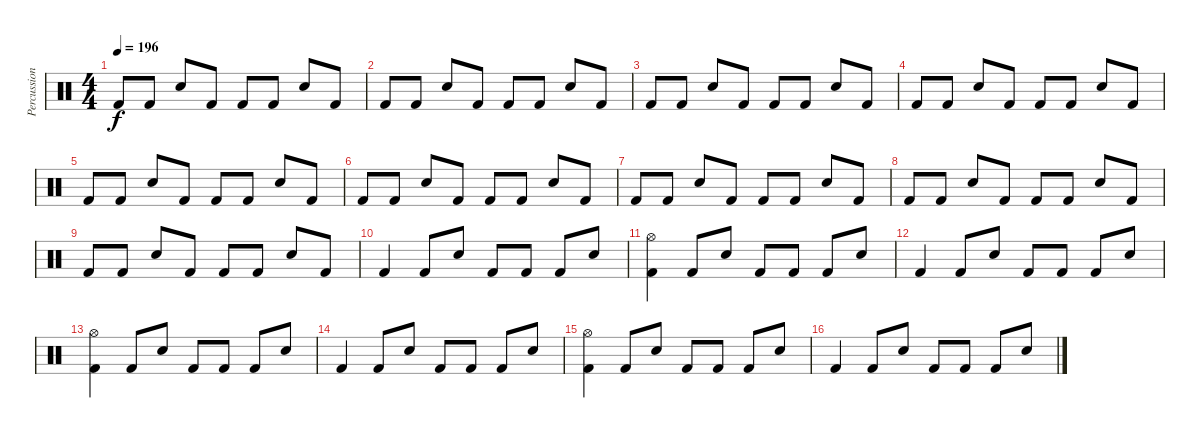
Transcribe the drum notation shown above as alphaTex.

\track ("Percussion" "Percussion") {instrument percussion}
\staff {score}
\articulation defaults
\ts (4 4)
\tempo 196
\clef neutral
\ks c "Kick (hit) 2".8{dy f} "Kick (hit) 2".8 "Electric Snare (hit)".8 "Kick (hit) 2".8 "Kick (hit) 2".8 "Kick (hit) 2".8 "Electric Snare (hit)".8 "Kick (hit) 2".8
|
"Kick (hit) 2".8 "Kick (hit) 2".8 "Electric Snare (hit)".8 "Kick (hit) 2".8 "Kick (hit) 2".8 "Kick (hit) 2".8 "Electric Snare (hit)".8 "Kick (hit) 2".8 |
"Kick (hit) 2".8 "Kick (hit) 2".8 "Electric Snare (hit)".8 "Kick (hit) 2".8 "Kick (hit) 2".8 "Kick (hit) 2".8 "Electric Snare (hit)".8 "Kick (hit) 2".8 |
"Kick (hit) 2".8 "Kick (hit) 2".8 "Electric Snare (hit)".8 "Kick (hit) 2".8 "Kick (hit) 2".8 "Kick (hit) 2".8 "Electric Snare (hit)".8 "Kick (hit) 2".8 |
"Kick (hit) 2".8 "Kick (hit) 2".8 "Electric Snare (hit)".8 "Kick (hit) 2".8 "Kick (hit) 2".8 "Kick (hit) 2".8 "Electric Snare (hit)".8 "Kick (hit) 2".8 |
"Kick (hit) 2".8 "Kick (hit) 2".8 "Electric Snare (hit)".8 "Kick (hit) 2".8 "Kick (hit) 2".8 "Kick (hit) 2".8 "Electric Snare (hit)".8 "Kick (hit) 2".8 |
"Kick (hit) 2".8 "Kick (hit) 2".8 "Electric Snare (hit)".8 "Kick (hit) 2".8 "Kick (hit) 2".8 "Kick (hit) 2".8 "Electric Snare (hit)".8 "Kick (hit) 2".8 |
"Kick (hit) 2".8 "Kick (hit) 2".8 "Electric Snare (hit)".8 "Kick (hit) 2".8 "Kick (hit) 2".8 "Kick (hit) 2".8 "Electric Snare (hit)".8 "Kick (hit) 2".8 |
"Kick (hit) 2".8 "Kick (hit) 2".8 "Electric Snare (hit)".8 "Kick (hit) 2".8 "Kick (hit) 2".8 "Kick (hit) 2".8 "Electric Snare (hit)".8 "Kick (hit) 2".8 |
"Kick (hit) 2".4 "Kick (hit) 2".8 "Electric Snare (hit)".8 "Kick (hit) 2".8 "Kick (hit) 2".8 "Kick (hit) 2".8 "Electric Snare (hit)".8 |
("Hi-Hat (open)" "Kick (hit) 2").4 "Kick (hit) 2".8 "Electric Snare (hit)".8 "Kick (hit) 2".8 "Kick (hit) 2".8 "Kick (hit) 2".8 "Electric Snare (hit)".8 |
"Kick (hit) 2".4 "Kick (hit) 2".8 "Electric Snare (hit)".8 "Kick (hit) 2".8 "Kick (hit) 2".8 "Kick (hit) 2".8 "Electric Snare (hit)".8 |
("Hi-Hat (open)" "Kick (hit) 2").4 "Kick (hit) 2".8 "Electric Snare (hit)".8 "Kick (hit) 2".8 "Kick (hit) 2".8 "Kick (hit) 2".8 "Electric Snare (hit)".8 |
"Kick (hit) 2".4 "Kick (hit) 2".8 "Electric Snare (hit)".8 "Kick (hit) 2".8 "Kick (hit) 2".8 "Kick (hit) 2".8 "Electric Snare (hit)".8 |
("Hi-Hat (open)" "Kick (hit) 2").4 "Kick (hit) 2".8 "Electric Snare (hit)".8 "Kick (hit) 2".8 "Kick (hit) 2".8 "Kick (hit) 2".8 "Electric Snare (hit)".8 |
"Kick (hit) 2".4 "Kick (hit) 2".8 "Electric Snare (hit)".8 "Kick (hit) 2".8 "Kick (hit) 2".8 "Kick (hit) 2".8 "Electric Snare (hit)".8
